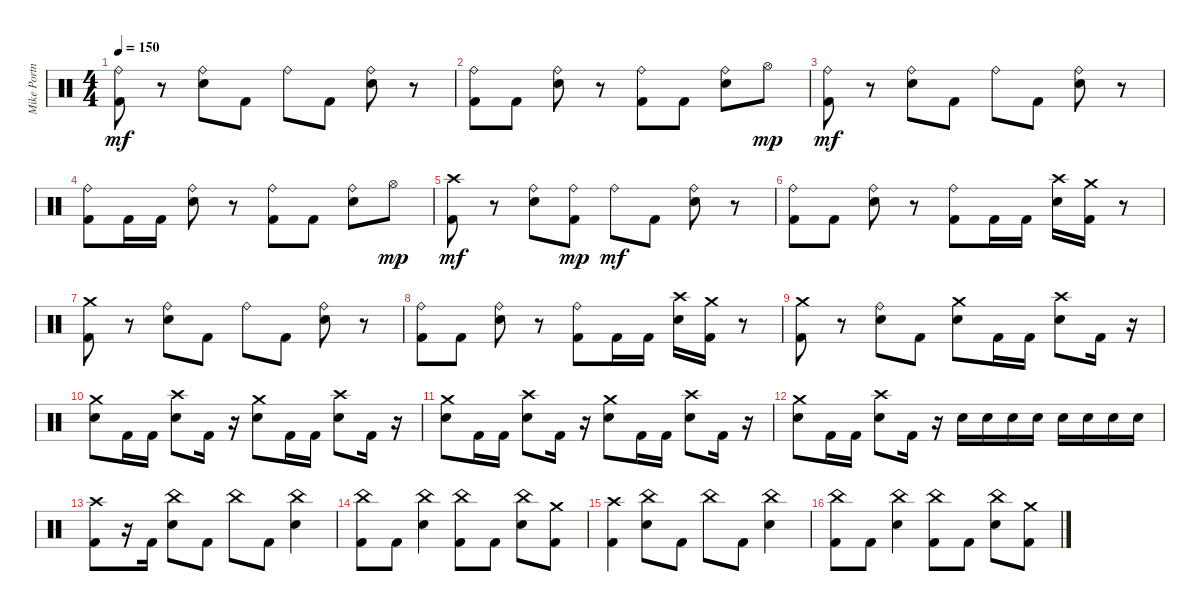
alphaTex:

\track ("Mike Portnoy: Drums" "Mike Portn") {instrument percussion}
\staff {score}
\articulation defaults
\ts (4 4)
\tempo 150
\clef neutral
\ks c
("Kick (hit) 2" "Ride (bell)").8{dy mf} r.8 ("Electric Snare (hit)" "Ride (bell)").8 "Kick (hit) 2".8 "Ride (bell)".8 "Kick (hit) 2".8 ("Electric Snare (hit)" "Ride (bell)").8 r.8 |
("Kick (hit) 2" "Ride (bell)").8 "Kick (hit) 2".8 ("Electric Snare (hit)" "Ride (bell)").8 r.8 ("Kick (hit) 2" "Ride (bell)").8 "Kick (hit) 2".8 ("Electric Snare (hit)" "Ride (bell)").8 "Hi-Hat (open)".8{dy mp} |
("Kick (hit) 2" "Ride (bell)").8{dy mf} r.8 ("Electric Snare (hit)" "Ride (bell)").8 "Kick (hit) 2".8 "Ride (bell)".8 "Kick (hit) 2".8 ("Electric Snare (hit)" "Ride (bell)").8 r.8 |
("Kick (hit) 2" "Ride (bell)").8 "Kick (hit) 2".16 "Kick (hit) 2".16 ("Electric Snare (hit)" "Ride (bell)").8 r.8 ("Kick (hit) 2" "Ride (bell)").8 "Kick (hit) 2".8 ("Electric Snare (hit)" "Ride (bell)").8 "Hi-Hat (open)".8{dy mp} |
("Kick (hit) 2" "Crash high (hit)").8{dy mf} r.8 ("Electric Snare (hit)" "Ride (bell)").8 ("Kick (hit) 2" "Ride (bell)").8{dy mp} "Ride (bell)".8{dy mf} "Kick (hit) 2".8 ("Electric Snare (hit)" "Ride (bell)").8 r.8 |
("Kick (hit) 2" "Ride (bell)").8 "Kick (hit) 2".8 ("Electric Snare (hit)" "Ride (bell)").8 r.8 ("Kick (hit) 2" "Ride (bell)").8 "Kick (hit) 2".16 "Kick (hit) 2".16 ("Electric Snare (hit)" "Crash high (hit)").16 ("Kick (hit) 2" "Crash medium (hit)").16 r.8 |
("Kick (hit) 2" "Crash medium (hit)").8 r.8 ("Electric Snare (hit)" "Ride (bell)").8 "Kick (hit) 2".8 "Ride (bell)".8 "Kick (hit) 2".8 ("Electric Snare (hit)" "Ride (bell)").8 r.8 |
("Kick (hit) 2" "Ride (bell)").8 "Kick (hit) 2".8 ("Electric Snare (hit)" "Ride (bell)").8 r.8 ("Kick (hit) 2" "Ride (bell)").8 "Kick (hit) 2".16 "Kick (hit) 2".16 ("Electric Snare (hit)" "Crash high (hit)").16 ("Kick (hit) 2" "Crash medium (hit)").16 r.8 |
("Kick (hit) 2" "Crash medium (hit)").8 r.8 ("Electric Snare (hit)" "Ride (bell)").8 "Kick (hit) 2".8 ("Electric Snare (hit)" "Crash medium (hit)").8 "Kick (hit) 2".16 "Kick (hit) 2".16 ("Electric Snare (hit)" "Crash high (hit)").8 "Kick (hit) 2".16 r.16 |
("Electric Snare (hit)" "Crash medium (hit)").8 "Kick (hit) 2".16 "Kick (hit) 2".16 ("Electric Snare (hit)" "Crash high (hit)").8 "Kick (hit) 2".16 r.16 ("Electric Snare (hit)" "Crash medium (hit)").8 "Kick (hit) 2".16 "Kick (hit) 2".16 ("Electric Snare (hit)" "Crash high (hit)").8 "Kick (hit) 2".16 r.16 |
("Electric Snare (hit)" "Crash medium (hit)").8 "Kick (hit) 2".16 "Kick (hit) 2".16 ("Electric Snare (hit)" "Crash high (hit)").8 "Kick (hit) 2".16 r.16 ("Electric Snare (hit)" "Crash medium (hit)").8 "Kick (hit) 2".16 "Kick (hit) 2".16 ("Electric Snare (hit)" "Crash high (hit)").8 "Kick (hit) 2".16 r.16 |
("Electric Snare (hit)" "Crash medium (hit)").8 "Kick (hit) 2".16 "Kick (hit) 2".16 ("Electric Snare (hit)" "Crash high (hit)").8 "Kick (hit) 2".16 r.16 "Electric Snare (hit)".16 "Electric Snare (hit)".16 "Electric Snare (hit)".16 "Electric Snare (hit)".16 "Electric Snare (hit)".16 "Electric Snare (hit)".16 "Electric Snare (hit)".16 "Electric Snare (hit)".16 |
("Kick (hit) 2" "Crash high (hit)").8 r.16 "Kick (hit) 2".16 ("Electric Snare (hit)" "China (hit)").8 "Kick (hit) 2".8 "China (hit)".8 "Kick (hit) 2".8 ("Electric Snare (hit)" "China (hit)").4 |
("Kick (hit) 2" "China (hit)").8 "Kick (hit) 2".8 ("Electric Snare (hit)" "China (hit)").4 ("Kick (hit) 2" "China (hit)").8 "Kick (hit) 2".8 ("Electric Snare (hit)" "China (hit)").8 ("Kick (hit) 2" "Crash medium (hit)").8 |
("Kick (hit) 2" "Crash high (hit)").4 ("Electric Snare (hit)" "China (hit)").8 "Kick (hit) 2".8 "China (hit)".8 "Kick (hit) 2".8 ("Electric Snare (hit)" "China (hit)").4 |
("Kick (hit) 2" "China (hit)").8 "Kick (hit) 2".8 ("Electric Snare (hit)" "China (hit)").4 ("Kick (hit) 2" "China (hit)").8 "Kick (hit) 2".8 ("Electric Snare (hit)" "China (hit)").8 ("Kick (hit) 2" "Crash medium (hit)").8
